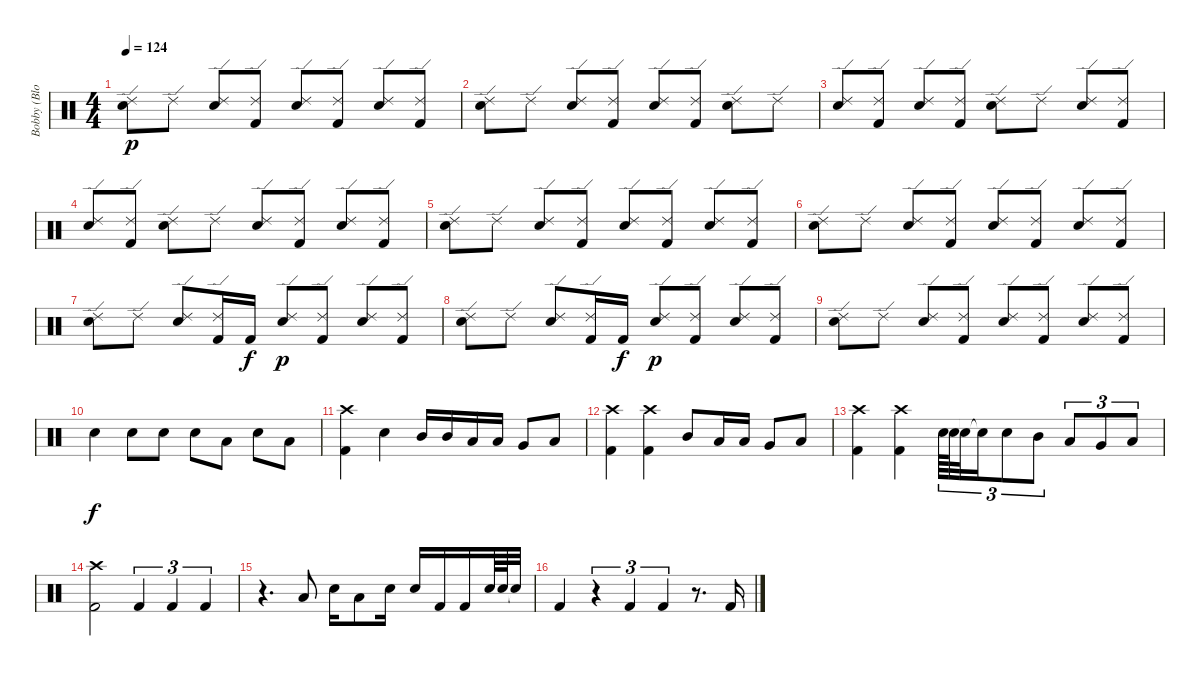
\track ("Bobby (Blotz) Blotzer" "Bobby (Blo") {instrument percussion}
\staff {score}
\articulation defaults
\ts (4 4)
\tempo 124
\clef neutral
\ks c
("Ride (edge) 2" "Snare (hit) 2").8{dy p} "Ride (edge) 2".8 ("Ride (edge) 2" "Snare (hit) 2").8 ("Kick (hit) 2" "Ride (edge) 2").8 ("Ride (edge) 2" "Snare (hit) 2").8 ("Kick (hit) 2" "Ride (edge) 2").8 ("Ride (edge) 2" "Snare (hit) 2").8 ("Kick (hit) 2" "Ride (edge) 2").8 |
("Ride (edge) 2" "Snare (hit) 2").8 "Ride (edge) 2".8 ("Ride (edge) 2" "Snare (hit) 2").8 ("Kick (hit) 2" "Ride (edge) 2").8 ("Ride (edge) 2" "Snare (hit) 2").8 ("Kick (hit) 2" "Ride (edge) 2").8 ("Ride (edge) 2" "Snare (hit) 2").8 "Ride (edge) 2".8 |
("Ride (edge) 2" "Snare (hit) 2").8 ("Kick (hit) 2" "Ride (edge) 2").8 ("Ride (edge) 2" "Snare (hit) 2").8 ("Kick (hit) 2" "Ride (edge) 2").8 ("Ride (edge) 2" "Snare (hit) 2").8 "Ride (edge) 2".8 ("Ride (edge) 2" "Snare (hit) 2").8 ("Kick (hit) 2" "Ride (edge) 2").8 |
("Ride (edge) 2" "Snare (hit) 2").8 ("Kick (hit) 2" "Ride (edge) 2").8 ("Ride (edge) 2" "Snare (hit) 2").8 "Ride (edge) 2".8 ("Ride (edge) 2" "Snare (hit) 2").8 ("Kick (hit) 2" "Ride (edge) 2").8 ("Ride (edge) 2" "Snare (hit) 2").8 ("Kick (hit) 2" "Ride (edge) 2").8 |
("Ride (edge) 2" "Snare (hit) 2").8 "Ride (edge) 2".8 ("Ride (edge) 2" "Snare (hit) 2").8 ("Kick (hit) 2" "Ride (edge) 2").8 ("Ride (edge) 2" "Snare (hit) 2").8 ("Kick (hit) 2" "Ride (edge) 2").8 ("Ride (edge) 2" "Snare (hit) 2").8 ("Kick (hit) 2" "Ride (edge) 2").8 |
("Ride (edge) 2" "Snare (hit) 2").8 "Ride (edge) 2".8 ("Ride (edge) 2" "Snare (hit) 2").8 ("Kick (hit) 2" "Ride (edge) 2").8 ("Ride (edge) 2" "Snare (hit) 2").8 ("Kick (hit) 2" "Ride (edge) 2").8 ("Ride (edge) 2" "Snare (hit) 2").8 ("Kick (hit) 2" "Ride (edge) 2").8 |
("Ride (edge) 2" "Snare (hit) 2").8 "Ride (edge) 2".8 ("Ride (edge) 2" "Snare (hit) 2").8 ("Kick (hit) 2" "Ride (edge) 2").16 "Kick (hit) 2".16{dy f} ("Ride (edge) 2" "Snare (hit) 2").8{dy p} ("Kick (hit) 2" "Ride (edge) 2").8 ("Ride (edge) 2" "Snare (hit) 2").8 ("Kick (hit) 2" "Ride (edge) 2").8 |
("Ride (edge) 2" "Snare (hit) 2").8 "Ride (edge) 2".8 ("Ride (edge) 2" "Snare (hit) 2").8 ("Kick (hit) 2" "Ride (edge) 2").16 "Kick (hit) 2".16{dy f} ("Ride (edge) 2" "Snare (hit) 2").8{dy p} ("Kick (hit) 2" "Ride (edge) 2").8 ("Ride (edge) 2" "Snare (hit) 2").8 ("Kick (hit) 2" "Ride (edge) 2").8 |
("Ride (edge) 2" "Snare (hit) 2").8 "Ride (edge) 2".8 ("Ride (edge) 2" "Snare (hit) 2").8 ("Kick (hit) 2" "Ride (edge) 2").8 ("Ride (edge) 2" "Snare (hit) 2").8 ("Kick (hit) 2" "Ride (edge) 2").8 ("Ride (edge) 2" "Snare (hit) 2").8 ("Kick (hit) 2" "Ride (edge) 2").8 |
"Snare (hit) 2".4{dy f} "Snare (hit) 2".8 "Snare (hit) 2".8 "Snare (hit) 2".8 "Low Tom (hit)".8 "Snare (hit) 2".8 "Low Tom (hit)".8 |
("Kick (hit) 2" "Crash high (hit)").4 "Snare (hit) 2".4 "Mid Tom (hit)".16 "Mid Tom (hit)".16 "Low Tom (hit)".16 "Low Tom (hit)".16 "Very Low Tom (hit)".8 "Low Floor Tom (hit)".8 |
("Kick (hit) 2" "Crash high (hit)").4 ("Kick (hit) 2" "Crash high (hit)").4 "Mid Tom (hit)".8 "Low Tom (hit)".16 "Low Tom (hit)".16 "Very Low Tom (hit)".8 "Low Floor Tom (hit)".8 |
("Kick (hit) 2" "Crash high (hit)").4 ("Kick (hit) 2" "Crash high (hit)").4 "Snare (hit) 2".64{tu (3 2)} "Snare (hit) 2".64{tu (3 2)} "Snare (hit)"{t}.32{tu (3 2)} "Snare (hit)"{t}.16{tu (3 2)} "Snare (hit) 2".8{tu (3 2)} "Mid Tom (hit)".8{tu (3 2)} "Low Tom (hit)".8{tu (3 2)} "Very Low Tom (hit)".8{tu (3 2)} "Low Floor Tom (hit)".8{tu (3 2)} |
("Kick (hit) 2" "Crash high (hit)").2 "Kick (hit) 2".4{tu (3 2)} "Kick (hit) 2".4{tu (3 2)} "Kick (hit) 2".4{tu (3 2)} |
r.4{d} "Low Tom (hit)".8 "Snare (hit) 2".16 "Low Tom (hit)".8 "Snare (hit) 2".16 "Snare (hit) 2".16 "Kick (hit) 2".16 "Kick (hit) 2".16 "Snare (hit) 2".64 "Snare (hit) 2".64 "Snare (hit)"{t}.32 |
"Kick (hit) 2".4 r.4{tu (3 2)} "Kick (hit) 2".4{tu (3 2)} "Kick (hit) 2".4{tu (3 2)} r.8{d} "Kick (hit) 2".16
